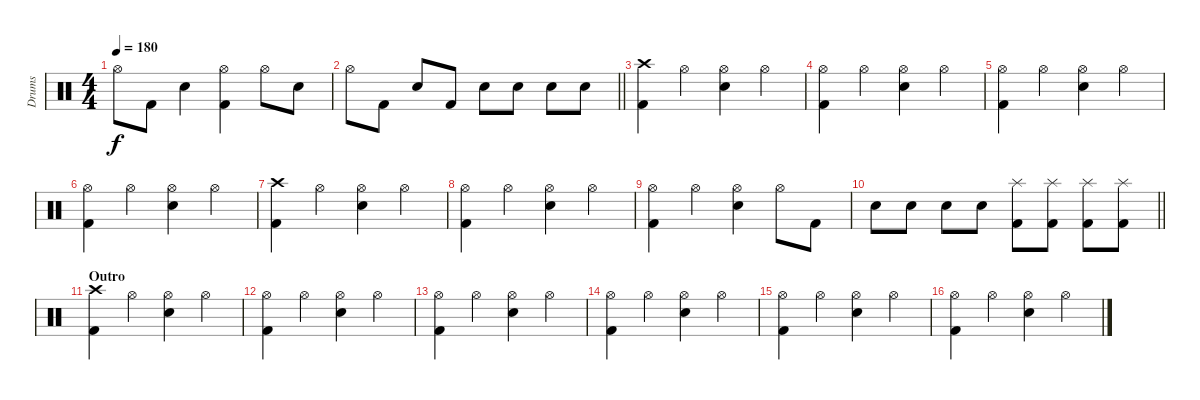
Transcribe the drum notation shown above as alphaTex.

\track ("Drums" "Drums") {instrument percussion}
\staff {score}
\articulation defaults
\ts (4 4)
\tempo 180
\clef neutral
\ks c "Hi-Hat (open)".8{dy f} "Kick (hit) 2".8 "Electric Snare (hit)".4
("Hi-Hat (open)" "Kick (hit) 2").4 "Hi-Hat (open)".8 "Electric Snare (hit)".8 |
\barLineRight lightlight "Hi-Hat (open)".8 "Kick (hit) 2".8 "Electric Snare (hit)".8 "Kick (hit) 2".8 "Electric Snare (hit)".8 "Electric Snare (hit)".8 "Electric Snare (hit)".8 "Electric Snare (hit)".8
|
("Crash high (hit)" "Kick (hit) 2").4 "Hi-Hat (open)".4 ("Hi-Hat (open)" "Electric Snare (hit)").4 "Hi-Hat (open)".4 |
("Hi-Hat (open)" "Kick (hit) 2").4 "Hi-Hat (open)".4 ("Hi-Hat (open)" "Electric Snare (hit)").4 "Hi-Hat (open)".4 |
("Hi-Hat (open)" "Kick (hit) 2").4 "Hi-Hat (open)".4 ("Hi-Hat (open)" "Electric Snare (hit)").4 "Hi-Hat (open)".4 |
("Hi-Hat (open)" "Kick (hit) 2").4 "Hi-Hat (open)".4 ("Hi-Hat (open)" "Electric Snare (hit)").4 "Hi-Hat (open)".4 |
("Crash high (hit)" "Kick (hit) 2").4 "Hi-Hat (open)".4 ("Hi-Hat (open)" "Electric Snare (hit)").4 "Hi-Hat (open)".4 |
("Hi-Hat (open)" "Kick (hit) 2").4 "Hi-Hat (open)".4 ("Hi-Hat (open)" "Electric Snare (hit)").4 "Hi-Hat (open)".4 |
("Hi-Hat (open)" "Kick (hit) 2").4 "Hi-Hat (open)".4 ("Hi-Hat (open)" "Electric Snare (hit)").4 "Hi-Hat (open)".8 "Kick (hit) 2".8 |
\barLineRight lightlight "Electric Snare (hit)".8 "Electric Snare (hit)".8 "Electric Snare (hit)".8 "Electric Snare (hit)".8
("Kick (hit) 2" "Splash (hit)").8 ("Kick (hit) 2" "Splash (hit)").8 ("Kick (hit) 2" "Splash (hit)").8 ("Kick (hit) 2" "Splash (hit)").8 |
\section ("" "Outro")
("Crash high (hit)" "Kick (hit) 2").4 "Hi-Hat (open)".4 ("Hi-Hat (open)" "Electric Snare (hit)").4 "Hi-Hat (open)".4 |
("Hi-Hat (open)" "Kick (hit) 2").4 "Hi-Hat (open)".4 ("Hi-Hat (open)" "Electric Snare (hit)").4 "Hi-Hat (open)".4 |
("Hi-Hat (open)" "Kick (hit) 2").4 "Hi-Hat (open)".4 ("Hi-Hat (open)" "Electric Snare (hit)").4 "Hi-Hat (open)".4 |
("Hi-Hat (open)" "Kick (hit) 2").4 "Hi-Hat (open)".4 ("Hi-Hat (open)" "Electric Snare (hit)").4 "Hi-Hat (open)".4 |
("Hi-Hat (open)" "Kick (hit) 2").4 "Hi-Hat (open)".4 ("Hi-Hat (open)" "Electric Snare (hit)").4 "Hi-Hat (open)".4 |
("Hi-Hat (open)" "Kick (hit) 2").4 "Hi-Hat (open)".4 ("Hi-Hat (open)" "Electric Snare (hit)").4 "Hi-Hat (open)".4
